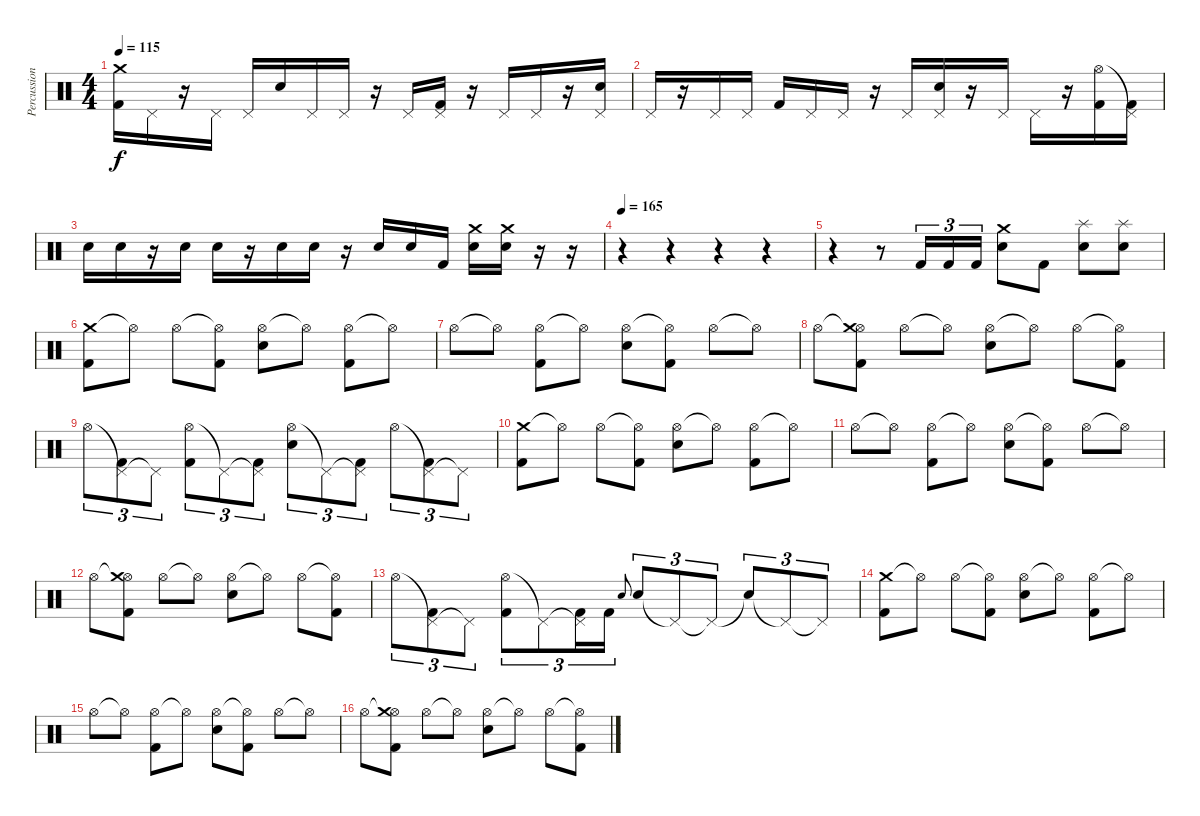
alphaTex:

\track ("Percussion" "Percussion") {instrument percussion}
\staff {score}
\articulation defaults
\ts (4 4)
\tempo 115
\clef neutral
\ks c
("Crash medium (hit)" "Kick (hit) 2").16{dy f} "Pedal Hi-Hat (hit)".16 r.16 "Pedal Hi-Hat (hit)".16 "Pedal Hi-Hat (hit)".16 "Electric Snare (hit)".16 "Pedal Hi-Hat (hit)".16 "Pedal Hi-Hat (hit)".16 r.16 "Pedal Hi-Hat (hit)".16 ("Pedal Hi-Hat (hit)" "Kick (hit) 2").16 r.16 "Pedal Hi-Hat (hit)".16 "Pedal Hi-Hat (hit)".16 r.16 ("Pedal Hi-Hat (hit)" "Electric Snare (hit)").16 |
"Pedal Hi-Hat (hit)".16 r.16 "Pedal Hi-Hat (hit)".16 "Pedal Hi-Hat (hit)".16 "Kick (hit) 2".16 "Pedal Hi-Hat (hit)".16 "Pedal Hi-Hat (hit)".16 r.16 "Pedal Hi-Hat (hit)".16 ("Pedal Hi-Hat (hit)" "Electric Snare (hit)").16 r.16 "Pedal Hi-Hat (hit)".16 "Pedal Hi-Hat (hit)".16 r.16 ("Hi-Hat (open)" "Kick (hit) 2").16 ("Pedal Hi-Hat (hit)"{t} "Kick (hit) 2").16 |
"Electric Snare (hit)".16 "Electric Snare (hit)".16 r.16 "Electric Snare (hit)".16 "Electric Snare (hit)".16 r.16 "Electric Snare (hit)".16 "Electric Snare (hit)".16 r.16 "Electric Snare (hit)".16 "Electric Snare (hit)".16 "Kick (hit) 2".16 ("Crash medium (hit)" "Electric Snare (hit)").16 ("Crash medium (hit)" "Electric Snare (hit)").16 r.16 r.16 |
\tempo 165
r.4 r.4 r.4 r.4 |
r.4 r.8 "Kick (hit) 2".16{tu (3 2)} "Kick (hit) 2".16{tu (3 2)} "Kick (hit) 2".16{tu (3 2)} ("Electric Snare (hit)" "Crash medium (hit)").8 "Kick (hit) 2".8 ("Electric Snare (hit)" "Splash (hit)").8 ("Electric Snare (hit)" "Splash (hit)").8 |
("Crash medium (hit)" "Kick (hit) 2").8 "Hi-Hat (open)"{t}.8 "Hi-Hat (open)".8 ("Hi-Hat (open)"{t} "Kick (hit) 2").8 ("Hi-Hat (open)" "Electric Snare (hit)").8 "Hi-Hat (open)"{t}.8 ("Hi-Hat (open)" "Kick (hit) 2").8 "Hi-Hat (open)"{t}.8 |
"Hi-Hat (open)".8 "Hi-Hat (open)"{t}.8 ("Hi-Hat (open)" "Kick (hit) 2").8 "Hi-Hat (open)"{t}.8 ("Hi-Hat (open)" "Electric Snare (hit)").8 ("Hi-Hat (open)"{t} "Kick (hit) 2").8 "Hi-Hat (open)".8 "Hi-Hat (open)"{t}.8 |
"Hi-Hat (open)".8 ("Hi-Hat (open)"{t} "Crash medium (hit)" "Kick (hit) 2").8 "Hi-Hat (open)".8 "Hi-Hat (open)"{t}.8 ("Hi-Hat (open)" "Electric Snare (hit)").8 "Hi-Hat (open)"{t}.8 "Hi-Hat (open)".8 ("Hi-Hat (open)"{t} "Kick (hit) 2").8 |
"Hi-Hat (open)".8{tu (3 2)} ("Pedal Hi-Hat (hit)"{t} "Kick (hit) 2").8{tu (3 2)} "Pedal Hi-Hat (hit)"{t}.8{tu (3 2)} ("Hi-Hat (open)" "Kick (hit) 2").8{tu (3 2)} "Pedal Hi-Hat (hit)"{t}.8{tu (3 2)} ("Pedal Hi-Hat (hit)"{t} "Kick (hit) 2").8{tu (3 2)} ("Hi-Hat (open)" "Electric Snare (hit)").8{tu (3 2)} "Pedal Hi-Hat (hit)"{t}.8{tu (3 2)} ("Pedal Hi-Hat (hit)"{t} "Kick (hit) 2").8{tu (3 2)} "Hi-Hat (open)".8{tu (3 2)} ("Pedal Hi-Hat (hit)"{t} "Kick (hit) 2").8{tu (3 2)} "Pedal Hi-Hat (hit)"{t}.8{tu (3 2)} |
("Crash medium (hit)" "Kick (hit) 2").8 "Hi-Hat (open)"{t}.8 "Hi-Hat (open)".8 ("Hi-Hat (open)"{t} "Kick (hit) 2").8 ("Hi-Hat (open)" "Electric Snare (hit)").8 "Hi-Hat (open)"{t}.8 ("Hi-Hat (open)" "Kick (hit) 2").8 "Hi-Hat (open)"{t}.8 |
"Hi-Hat (open)".8 "Hi-Hat (open)"{t}.8 ("Hi-Hat (open)" "Kick (hit) 2").8 "Hi-Hat (open)"{t}.8 ("Hi-Hat (open)" "Electric Snare (hit)").8 ("Hi-Hat (open)"{t} "Kick (hit) 2").8 "Hi-Hat (open)".8 "Hi-Hat (open)"{t}.8 |
"Hi-Hat (open)".8 ("Hi-Hat (open)"{t} "Crash medium (hit)" "Kick (hit) 2").8 "Hi-Hat (open)".8 "Hi-Hat (open)"{t}.8 ("Hi-Hat (open)" "Electric Snare (hit)").8 "Hi-Hat (open)"{t}.8 "Hi-Hat (open)".8 ("Hi-Hat (open)"{t} "Kick (hit) 2").8 |
"Hi-Hat (open)".8{tu (3 2)} ("Pedal Hi-Hat (hit)"{t} "Kick (hit) 2").8{tu (3 2)} "Pedal Hi-Hat (hit)"{t}.8{tu (3 2)} ("Hi-Hat (open)" "Kick (hit) 2").8{tu (3 2)} "Pedal Hi-Hat (hit)"{t}.8{tu (3 2)} ("Pedal Hi-Hat (hit)"{t} "Kick (hit) 2").16{tu (3 2)} "Kick (hit) 2".16{tu (3 2)} "Electric Snare (hit)".8{gr onbeat} "Electric Snare (hit)".8{tu (3 2)} "Pedal Hi-Hat (hit)"{t}.8{tu (3 2)} "Pedal Hi-Hat (hit)"{t}.8{tu (3 2)} "Snare (hit)"{t}.8{tu (3 2)} "Pedal Hi-Hat (hit)"{t}.8{tu (3 2)} "Pedal Hi-Hat (hit)"{t}.8{tu (3 2)} |
("Crash medium (hit)" "Kick (hit) 2").8 "Hi-Hat (open)"{t}.8 "Hi-Hat (open)".8 ("Hi-Hat (open)"{t} "Kick (hit) 2").8 ("Hi-Hat (open)" "Electric Snare (hit)").8 "Hi-Hat (open)"{t}.8 ("Hi-Hat (open)" "Kick (hit) 2").8 "Hi-Hat (open)"{t}.8 |
"Hi-Hat (open)".8 "Hi-Hat (open)"{t}.8 ("Hi-Hat (open)" "Kick (hit) 2").8 "Hi-Hat (open)"{t}.8 ("Hi-Hat (open)" "Electric Snare (hit)").8 ("Hi-Hat (open)"{t} "Kick (hit) 2").8 "Hi-Hat (open)".8 "Hi-Hat (open)"{t}.8 |
"Hi-Hat (open)".8 ("Hi-Hat (open)"{t} "Crash medium (hit)" "Kick (hit) 2").8 "Hi-Hat (open)".8 "Hi-Hat (open)"{t}.8 ("Hi-Hat (open)" "Electric Snare (hit)").8 "Hi-Hat (open)"{t}.8 "Hi-Hat (open)".8 ("Hi-Hat (open)"{t} "Kick (hit) 2").8
